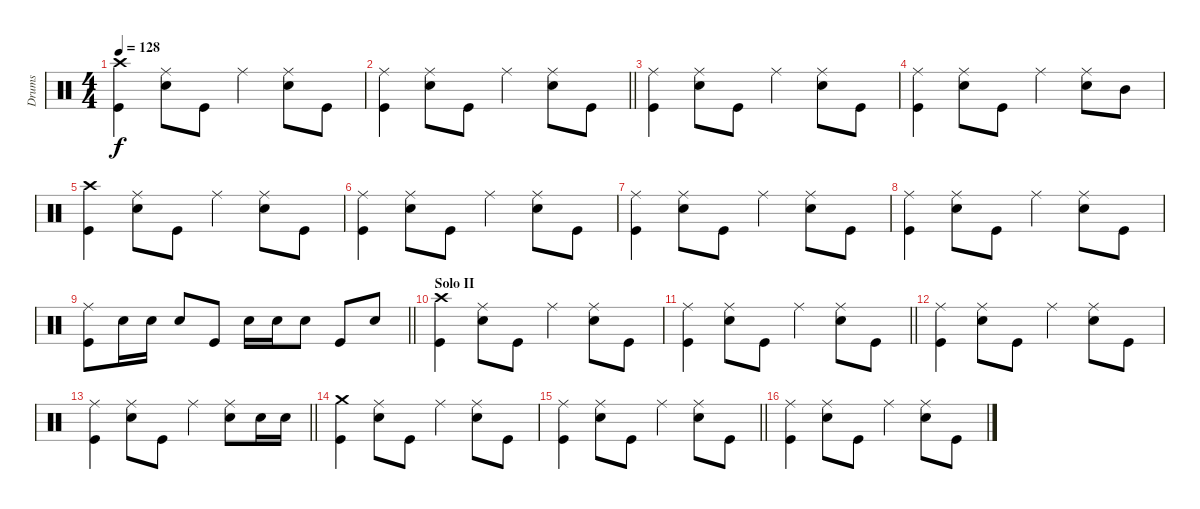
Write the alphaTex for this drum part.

\track ("Drums" "Drums") {instrument percussion}
\staff {score}
\articulation defaults
\ts (4 4)
\tempo 128
\clef neutral
\ks c
("Crash high (hit)" "Kick (hit)").4{dy f} ("Snare (hit) 2" "Ride (middle)").8 "Kick (hit)".8 "Ride (middle)".4 ("Snare (hit) 2" "Ride (middle)").8 "Kick (hit)".8 |
\barLineRight lightlight
("Ride (middle)" "Kick (hit)").4 ("Snare (hit) 2" "Ride (middle)").8 "Kick (hit)".8 "Ride (middle)".4 ("Snare (hit) 2" "Ride (middle)").8 "Kick (hit)".8 |
("Ride (middle)" "Kick (hit)").4 ("Snare (hit) 2" "Ride (middle)").8 "Kick (hit)".8 "Ride (middle)".4 ("Snare (hit) 2" "Ride (middle)").8 "Kick (hit)".8 |
("Ride (middle)" "Kick (hit)").4 ("Snare (hit) 2" "Ride (middle)").8 "Kick (hit)".8 "Ride (middle)".4 ("Snare (hit) 2" "Ride (middle)").8 "Mid Tom (hit)".8 |
("Crash high (hit)" "Kick (hit)").4 ("Snare (hit) 2" "Ride (middle)").8 "Kick (hit)".8 "Ride (middle)".4 ("Snare (hit) 2" "Ride (middle)").8 "Kick (hit)".8 |
("Ride (middle)" "Kick (hit)").4 ("Snare (hit) 2" "Ride (middle)").8 "Kick (hit)".8 "Ride (middle)".4 ("Snare (hit) 2" "Ride (middle)").8 "Kick (hit)".8 |
("Ride (middle)" "Kick (hit)").4 ("Snare (hit) 2" "Ride (middle)").8 "Kick (hit)".8 "Ride (middle)".4 ("Snare (hit) 2" "Ride (middle)").8 "Kick (hit)".8 |
("Ride (middle)" "Kick (hit)").4 ("Snare (hit) 2" "Ride (middle)").8 "Kick (hit)".8 "Ride (middle)".4 ("Snare (hit) 2" "Ride (middle)").8 "Kick (hit)".8 |
\barLineRight lightlight
("Kick (hit)" "Ride (middle)").8 "Snare (hit) 2".16 "Snare (hit) 2".16 "Snare (hit) 2".8 "Kick (hit)".8 "Snare (hit) 2".16 "Snare (hit) 2".16 "Snare (hit) 2".8 "Kick (hit)".8 "Snare (hit) 2".8 |
\section ("" "Solo II")
("Crash high (hit)" "Kick (hit)").4 ("Snare (hit) 2" "Ride (middle)").8 "Kick (hit)".8 "Ride (middle)".4 ("Snare (hit) 2" "Ride (middle)").8 "Kick (hit)".8 |
\barLineRight lightlight
("Ride (middle)" "Kick (hit)").4 ("Snare (hit) 2" "Ride (middle)").8 "Kick (hit)".8 "Ride (middle)".4 ("Snare (hit) 2" "Ride (middle)").8 "Kick (hit)".8 |
("Ride (middle)" "Kick (hit)").4 ("Snare (hit) 2" "Ride (middle)").8 "Kick (hit)".8 "Ride (middle)".4 ("Snare (hit) 2" "Ride (middle)").8 "Kick (hit)".8 |
\barLineRight lightlight
("Ride (middle)" "Kick (hit)").4 ("Snare (hit) 2" "Ride (middle)").8 "Kick (hit)".8 "Ride (middle)".4 ("Snare (hit) 2" "Ride (middle)").8 "Snare (hit) 2".16 "Snare (hit) 2".16 |
("Crash medium (hit)" "Kick (hit)").4 ("Snare (hit) 2" "Ride (middle)").8 "Kick (hit)".8 "Ride (middle)".4 ("Snare (hit) 2" "Ride (middle)").8 "Kick (hit)".8 |
\barLineRight lightlight
("Ride (middle)" "Kick (hit)").4 ("Snare (hit) 2" "Ride (middle)").8 "Kick (hit)".8 "Ride (middle)".4 ("Snare (hit) 2" "Ride (middle)").8 "Kick (hit)".8 |
("Ride (middle)" "Kick (hit)").4 ("Snare (hit) 2" "Ride (middle)").8 "Kick (hit)".8 "Ride (middle)".4 ("Snare (hit) 2" "Ride (middle)").8 "Kick (hit)".8
